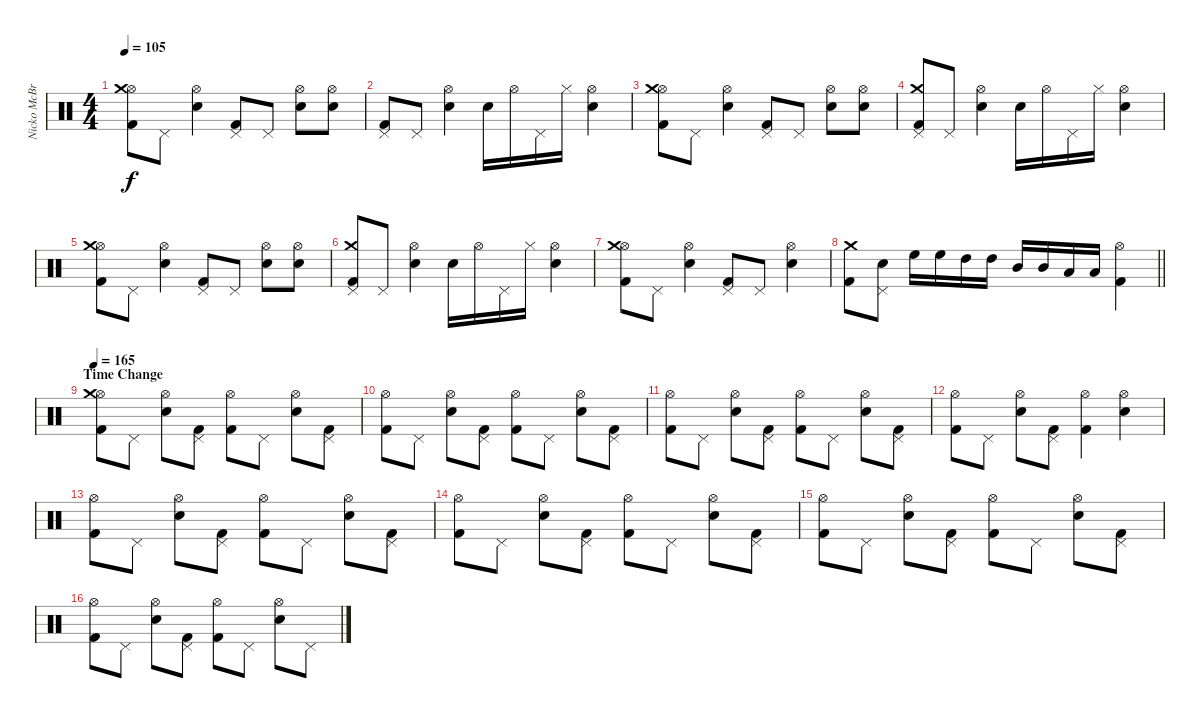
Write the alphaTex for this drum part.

\track ("Nicko McBrain" "Nicko McBr") {instrument percussion}
\staff {score}
\articulation defaults
\ts (4 4)
\tempo 105
\clef neutral
\ks c
("Kick (hit) 2" "Hi-Hat (open)" "Crash medium (hit)").8{dy f} "Pedal Hi-Hat (hit)".8 ("Snare (hit) 2" "Hi-Hat (open)").4 ("Kick (hit) 2" "Pedal Hi-Hat (hit)").8 "Pedal Hi-Hat (hit)".8 ("Snare (hit) 2" "Hi-Hat (open)").8 ("Snare (hit) 2" "Hi-Hat (open)").8 |
("Kick (hit) 2" "Pedal Hi-Hat (hit)").8 "Pedal Hi-Hat (hit)".8 ("Snare (hit) 2" "Hi-Hat (open)").4 "Snare (hit) 2".16 "Hi-Hat (open)".16 "Pedal Hi-Hat (hit)".16 "Hi-Hat (closed)".16 ("Snare (hit) 2" "Hi-Hat (open)").4 |
("Kick (hit) 2" "Hi-Hat (open)" "Crash medium (hit)").8 "Pedal Hi-Hat (hit)".8 ("Snare (hit) 2" "Hi-Hat (open)").4 ("Kick (hit) 2" "Pedal Hi-Hat (hit)").8 "Pedal Hi-Hat (hit)".8 ("Snare (hit) 2" "Hi-Hat (open)").8 ("Snare (hit) 2" "Hi-Hat (open)").8 |
("Kick (hit) 2" "Pedal Hi-Hat (hit)" "Crash medium (hit)").8 "Pedal Hi-Hat (hit)".8 ("Snare (hit) 2" "Hi-Hat (open)").4 "Snare (hit) 2".16 "Hi-Hat (open)".16 "Pedal Hi-Hat (hit)".16 "Hi-Hat (closed)".16 ("Snare (hit) 2" "Hi-Hat (open)").4 |
("Kick (hit) 2" "Hi-Hat (open)" "Crash medium (hit)").8 "Pedal Hi-Hat (hit)".8 ("Snare (hit) 2" "Hi-Hat (open)").4 ("Kick (hit) 2" "Pedal Hi-Hat (hit)").8 "Pedal Hi-Hat (hit)".8 ("Snare (hit) 2" "Hi-Hat (open)").8 ("Snare (hit) 2" "Hi-Hat (open)").8 |
("Kick (hit) 2" "Pedal Hi-Hat (hit)" "Crash medium (hit)").8 "Pedal Hi-Hat (hit)".8 ("Snare (hit) 2" "Hi-Hat (open)").4 "Snare (hit) 2".16 "Hi-Hat (open)".16 "Pedal Hi-Hat (hit)".16 "Hi-Hat (closed)".16 ("Snare (hit) 2" "Hi-Hat (open)").4 |
("Kick (hit) 2" "Hi-Hat (open)" "Crash medium (hit)").8 "Pedal Hi-Hat (hit)".8 ("Snare (hit) 2" "Hi-Hat (open)").4 ("Kick (hit) 2" "Pedal Hi-Hat (hit)").8 "Pedal Hi-Hat (hit)".8 ("Snare (hit) 2" "Hi-Hat (open)").4 |
\barLineRight lightlight
("Kick (hit) 2" "Crash medium (hit)").8 ("Snare (hit) 2" "Pedal Hi-Hat (hit)").8 "High Floor Tom (hit)".16 "High Floor Tom (hit)".16 "High Tom (hit)".16 "High Tom (hit)".16 "Mid Tom (hit)".16 "Mid Tom (hit)".16 "Low Tom (hit)".16 "Low Tom (hit)".16 ("Kick (hit) 2" "Hi-Hat (open)").4 |
\section ("" "Time Change")
\tempo 165
("Kick (hit) 2" "Hi-Hat (open)" "Crash medium (hit)").8 "Pedal Hi-Hat (hit)".8 ("Snare (hit) 2" "Hi-Hat (open)").8 ("Kick (hit) 2" "Pedal Hi-Hat (hit)").8 ("Kick (hit) 2" "Hi-Hat (open)").8 "Pedal Hi-Hat (hit)".8 ("Snare (hit) 2" "Hi-Hat (open)").8 ("Kick (hit) 2" "Pedal Hi-Hat (hit)").8 |
("Kick (hit) 2" "Hi-Hat (open)").8 "Pedal Hi-Hat (hit)".8 ("Snare (hit) 2" "Hi-Hat (open)").8 ("Kick (hit) 2" "Pedal Hi-Hat (hit)").8 ("Kick (hit) 2" "Hi-Hat (open)").8 "Pedal Hi-Hat (hit)".8 ("Snare (hit) 2" "Hi-Hat (open)").8 ("Kick (hit) 2" "Pedal Hi-Hat (hit)").8 |
("Kick (hit) 2" "Hi-Hat (open)").8 "Pedal Hi-Hat (hit)".8 ("Snare (hit) 2" "Hi-Hat (open)").8 ("Kick (hit) 2" "Pedal Hi-Hat (hit)").8 ("Kick (hit) 2" "Hi-Hat (open)").8 "Pedal Hi-Hat (hit)".8 ("Snare (hit) 2" "Hi-Hat (open)").8 ("Kick (hit) 2" "Pedal Hi-Hat (hit)").8 |
("Kick (hit) 2" "Hi-Hat (open)").8 "Pedal Hi-Hat (hit)".8 ("Snare (hit) 2" "Hi-Hat (open)").8 ("Kick (hit) 2" "Pedal Hi-Hat (hit)").8 ("Kick (hit) 2" "Hi-Hat (open)").4 ("Snare (hit) 2" "Hi-Hat (open)").4 |
("Kick (hit) 2" "Hi-Hat (open)").8 "Pedal Hi-Hat (hit)".8 ("Snare (hit) 2" "Hi-Hat (open)").8 ("Kick (hit) 2" "Pedal Hi-Hat (hit)").8 ("Kick (hit) 2" "Hi-Hat (open)").8 "Pedal Hi-Hat (hit)".8 ("Snare (hit) 2" "Hi-Hat (open)").8 ("Kick (hit) 2" "Pedal Hi-Hat (hit)").8 |
("Kick (hit) 2" "Hi-Hat (open)").8 "Pedal Hi-Hat (hit)".8 ("Snare (hit) 2" "Hi-Hat (open)").8 ("Kick (hit) 2" "Pedal Hi-Hat (hit)").8 ("Kick (hit) 2" "Hi-Hat (open)").8 "Pedal Hi-Hat (hit)".8 ("Snare (hit) 2" "Hi-Hat (open)").8 ("Kick (hit) 2" "Pedal Hi-Hat (hit)").8 |
("Kick (hit) 2" "Hi-Hat (open)").8 "Pedal Hi-Hat (hit)".8 ("Snare (hit) 2" "Hi-Hat (open)").8 ("Kick (hit) 2" "Pedal Hi-Hat (hit)").8 ("Kick (hit) 2" "Hi-Hat (open)").8 "Pedal Hi-Hat (hit)".8 ("Snare (hit) 2" "Hi-Hat (open)").8 ("Kick (hit) 2" "Pedal Hi-Hat (hit)").8 |
("Kick (hit) 2" "Hi-Hat (open)").8 "Pedal Hi-Hat (hit)".8 ("Snare (hit) 2" "Hi-Hat (open)").8 ("Kick (hit) 2" "Pedal Hi-Hat (hit)").8 ("Kick (hit) 2" "Hi-Hat (open)").8 "Pedal Hi-Hat (hit)".8 ("Snare (hit) 2" "Hi-Hat (open)").8 "Pedal Hi-Hat (hit)".8
